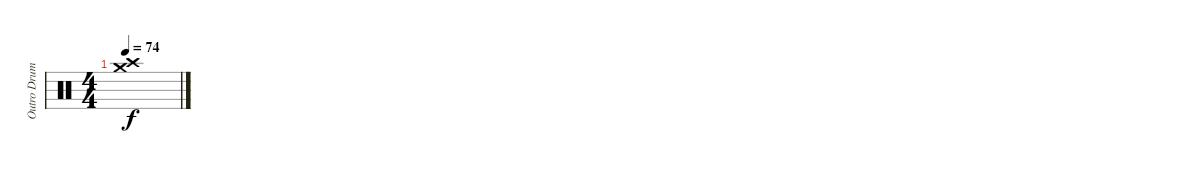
\track ("Outro Drums" "Outro Drum") {instrument percussion}
\staff {score}
\articulation defaults
\ts (4 4)
\tempo 74
\clef neutral
\ks c
("Crash high (hit)" "Crash medium (hit)").1{dy f}
